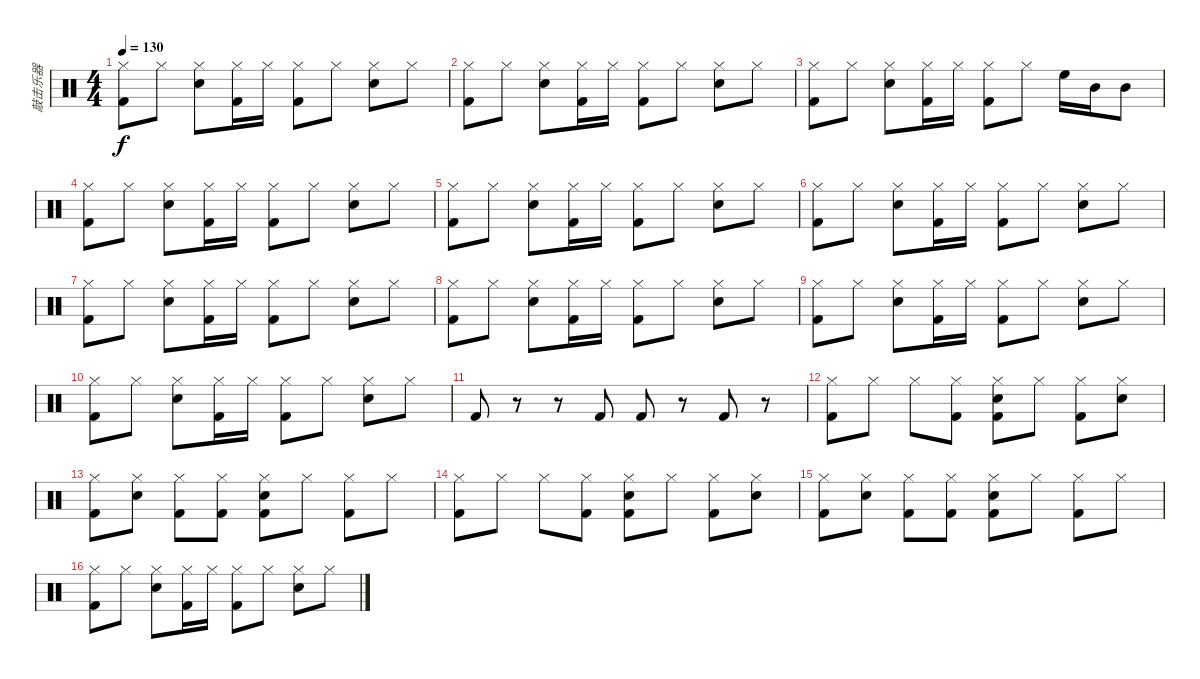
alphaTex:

\track ("敲击乐器" "敲击乐器") {instrument percussion}
\staff {score}
\articulation defaults
\ts (4 4)
\tempo 130
\clef neutral
\ks c
("Hi-Hat (closed)" "Kick (hit) 2").8{dy f} "Hi-Hat (closed)".8 ("Hi-Hat (closed)" "Snare (hit) 2").8 ("Hi-Hat (closed)" "Kick (hit) 2").16 "Hi-Hat (closed)".16 ("Hi-Hat (closed)" "Kick (hit) 2").8 "Hi-Hat (closed)".8 ("Hi-Hat (closed)" "Snare (hit) 2").8 "Hi-Hat (closed)".8 |
("Hi-Hat (closed)" "Kick (hit) 2").8 "Hi-Hat (closed)".8 ("Hi-Hat (closed)" "Snare (hit) 2").8 ("Hi-Hat (closed)" "Kick (hit) 2").16 "Hi-Hat (closed)".16 ("Hi-Hat (closed)" "Kick (hit) 2").8 "Hi-Hat (closed)".8 ("Hi-Hat (closed)" "Snare (hit) 2").8 "Hi-Hat (closed)".8 |
("Hi-Hat (closed)" "Kick (hit) 2").8 "Hi-Hat (closed)".8 ("Hi-Hat (closed)" "Snare (hit) 2").8 ("Hi-Hat (closed)" "Kick (hit) 2").16 "Hi-Hat (closed)".16 ("Hi-Hat (closed)" "Kick (hit) 2").8 "Hi-Hat (closed)".8 "High Floor Tom (hit)".16 "Mid Tom (hit)".16 "Mid Tom (hit)".8 |
("Hi-Hat (closed)" "Kick (hit) 2").8 "Hi-Hat (closed)".8 ("Hi-Hat (closed)" "Snare (hit) 2").8 ("Hi-Hat (closed)" "Kick (hit) 2").16 "Hi-Hat (closed)".16 ("Hi-Hat (closed)" "Kick (hit) 2").8 "Hi-Hat (closed)".8 ("Hi-Hat (closed)" "Snare (hit) 2").8 "Hi-Hat (closed)".8 |
("Hi-Hat (closed)" "Kick (hit) 2").8 "Hi-Hat (closed)".8 ("Hi-Hat (closed)" "Snare (hit) 2").8 ("Hi-Hat (closed)" "Kick (hit) 2").16 "Hi-Hat (closed)".16 ("Hi-Hat (closed)" "Kick (hit) 2").8 "Hi-Hat (closed)".8 ("Hi-Hat (closed)" "Snare (hit) 2").8 "Hi-Hat (closed)".8 |
("Hi-Hat (closed)" "Kick (hit) 2").8 "Hi-Hat (closed)".8 ("Hi-Hat (closed)" "Snare (hit) 2").8 ("Hi-Hat (closed)" "Kick (hit) 2").16 "Hi-Hat (closed)".16 ("Hi-Hat (closed)" "Kick (hit) 2").8 "Hi-Hat (closed)".8 ("Hi-Hat (closed)" "Snare (hit) 2").8 "Hi-Hat (closed)".8 |
("Hi-Hat (closed)" "Kick (hit) 2").8 "Hi-Hat (closed)".8 ("Hi-Hat (closed)" "Snare (hit) 2").8 ("Hi-Hat (closed)" "Kick (hit) 2").16 "Hi-Hat (closed)".16 ("Hi-Hat (closed)" "Kick (hit) 2").8 "Hi-Hat (closed)".8 ("Hi-Hat (closed)" "Snare (hit) 2").8 "Hi-Hat (closed)".8 |
("Hi-Hat (closed)" "Kick (hit) 2").8 "Hi-Hat (closed)".8 ("Hi-Hat (closed)" "Snare (hit) 2").8 ("Hi-Hat (closed)" "Kick (hit) 2").16 "Hi-Hat (closed)".16 ("Hi-Hat (closed)" "Kick (hit) 2").8 "Hi-Hat (closed)".8 ("Hi-Hat (closed)" "Snare (hit) 2").8 "Hi-Hat (closed)".8 |
("Hi-Hat (closed)" "Kick (hit) 2").8 "Hi-Hat (closed)".8 ("Hi-Hat (closed)" "Snare (hit) 2").8 ("Hi-Hat (closed)" "Kick (hit) 2").16 "Hi-Hat (closed)".16 ("Hi-Hat (closed)" "Kick (hit) 2").8 "Hi-Hat (closed)".8 ("Hi-Hat (closed)" "Snare (hit) 2").8 "Hi-Hat (closed)".8 |
("Hi-Hat (closed)" "Kick (hit) 2").8 "Hi-Hat (closed)".8 ("Hi-Hat (closed)" "Snare (hit) 2").8 ("Hi-Hat (closed)" "Kick (hit) 2").16 "Hi-Hat (closed)".16 ("Hi-Hat (closed)" "Kick (hit) 2").8 "Hi-Hat (closed)".8 ("Hi-Hat (closed)" "Snare (hit) 2").8 "Hi-Hat (closed)".8 |
"Kick (hit) 2".8 r.8 r.8 "Kick (hit) 2".8 "Kick (hit) 2".8 r.8 "Kick (hit) 2".8 r.8 |
("Hi-Hat (closed)" "Kick (hit) 2").8 "Hi-Hat (closed)".8 "Hi-Hat (closed)".8 ("Hi-Hat (closed)" "Kick (hit) 2").8 ("Hi-Hat (closed)" "Snare (hit) 2" "Kick (hit) 2").8 "Hi-Hat (closed)".8 ("Hi-Hat (closed)" "Kick (hit) 2").8 ("Hi-Hat (closed)" "Snare (hit) 2").8 |
("Hi-Hat (closed)" "Kick (hit) 2").8 ("Hi-Hat (closed)" "Snare (hit) 2").8 ("Hi-Hat (closed)" "Kick (hit) 2").8 ("Hi-Hat (closed)" "Kick (hit) 2").8 ("Hi-Hat (closed)" "Snare (hit) 2" "Kick (hit) 2").8 "Hi-Hat (closed)".8 ("Hi-Hat (closed)" "Kick (hit) 2").8 "Hi-Hat (closed)".8 |
("Hi-Hat (closed)" "Kick (hit) 2").8 "Hi-Hat (closed)".8 "Hi-Hat (closed)".8 ("Hi-Hat (closed)" "Kick (hit) 2").8 ("Hi-Hat (closed)" "Snare (hit) 2" "Kick (hit) 2").8 "Hi-Hat (closed)".8 ("Hi-Hat (closed)" "Kick (hit) 2").8 ("Hi-Hat (closed)" "Snare (hit) 2").8 |
("Hi-Hat (closed)" "Kick (hit) 2").8 ("Hi-Hat (closed)" "Snare (hit) 2").8 ("Hi-Hat (closed)" "Kick (hit) 2").8 ("Hi-Hat (closed)" "Kick (hit) 2").8 ("Hi-Hat (closed)" "Snare (hit) 2" "Kick (hit) 2").8 "Hi-Hat (closed)".8 ("Hi-Hat (closed)" "Kick (hit) 2").8 "Hi-Hat (closed)".8 |
("Hi-Hat (closed)" "Kick (hit) 2").8 "Hi-Hat (closed)".8 ("Hi-Hat (closed)" "Snare (hit) 2").8 ("Hi-Hat (closed)" "Kick (hit) 2").16 "Hi-Hat (closed)".16 ("Hi-Hat (closed)" "Kick (hit) 2").8 "Hi-Hat (closed)".8 ("Hi-Hat (closed)" "Snare (hit) 2").8 "Hi-Hat (closed)".8
